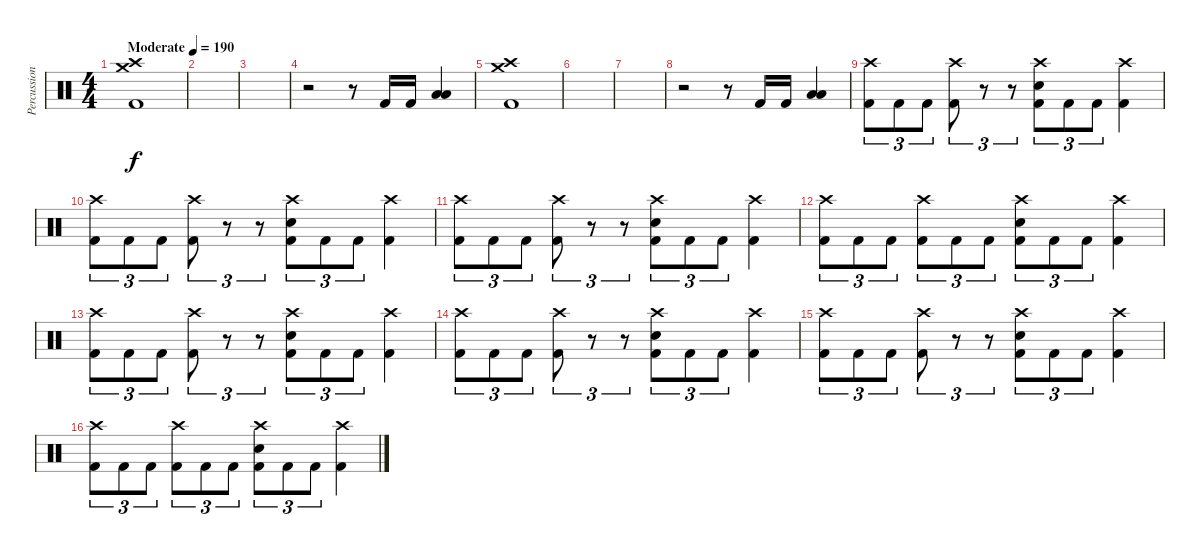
\track ("Percussion" "Percussion") {instrument percussion}
\staff {score}
\articulation defaults
\ts (4 4)
\tempo (190 "Moderate")
\clef neutral
\ks c
("Crash medium (hit)" "Crash high (hit)" "Kick (hit) 2").1{dy f} |
|
|
r.2 r.8 "Kick (hit) 2".16 "Kick (hit) 2".16 ("Low Tom (hit)" "Low Floor Tom (hit)").4 |
("Crash medium (hit)" "Crash high (hit)" "Kick (hit) 2").1 |
|
|
r.2 r.8 "Kick (hit) 2".16 "Kick (hit) 2".16 ("Low Tom (hit)" "Low Floor Tom (hit)").4 |
("Crash high (hit)" "Kick (hit) 2").8{tu (3 2)} "Kick (hit) 2".8{tu (3 2)} "Kick (hit) 2".8{tu (3 2)} ("Crash high (hit)" "Kick (hit) 2").8{tu (3 2)} r.8{tu (3 2)} r.8{tu (3 2)} ("Crash high (hit)" "Electric Snare (hit)" "Kick (hit) 2").8{tu (3 2)} "Kick (hit) 2".8{tu (3 2)} "Kick (hit) 2".8{tu (3 2)} ("Crash high (hit)" "Kick (hit) 2").4 |
("Crash high (hit)" "Kick (hit) 2").8{tu (3 2)} "Kick (hit) 2".8{tu (3 2)} "Kick (hit) 2".8{tu (3 2)} ("Crash high (hit)" "Kick (hit) 2").8{tu (3 2)} r.8{tu (3 2)} r.8{tu (3 2)} ("Crash high (hit)" "Electric Snare (hit)" "Kick (hit) 2").8{tu (3 2)} "Kick (hit) 2".8{tu (3 2)} "Kick (hit) 2".8{tu (3 2)} ("Crash high (hit)" "Kick (hit) 2").4 |
("Crash high (hit)" "Kick (hit) 2").8{tu (3 2)} "Kick (hit) 2".8{tu (3 2)} "Kick (hit) 2".8{tu (3 2)} ("Crash high (hit)" "Kick (hit) 2").8{tu (3 2)} r.8{tu (3 2)} r.8{tu (3 2)} ("Crash high (hit)" "Electric Snare (hit)" "Kick (hit) 2").8{tu (3 2)} "Kick (hit) 2".8{tu (3 2)} "Kick (hit) 2".8{tu (3 2)} ("Crash high (hit)" "Kick (hit) 2").4 |
("Crash high (hit)" "Kick (hit) 2").8{tu (3 2)} "Kick (hit) 2".8{tu (3 2)} "Kick (hit) 2".8{tu (3 2)} ("Crash high (hit)" "Kick (hit) 2").8{tu (3 2)} "Kick (hit) 2".8{tu (3 2)} "Kick (hit) 2".8{tu (3 2)} ("Crash high (hit)" "Electric Snare (hit)" "Kick (hit) 2").8{tu (3 2)} "Kick (hit) 2".8{tu (3 2)} "Kick (hit) 2".8{tu (3 2)} ("Crash high (hit)" "Kick (hit) 2").4 |
("Crash high (hit)" "Kick (hit) 2").8{tu (3 2)} "Kick (hit) 2".8{tu (3 2)} "Kick (hit) 2".8{tu (3 2)} ("Crash high (hit)" "Kick (hit) 2").8{tu (3 2)} r.8{tu (3 2)} r.8{tu (3 2)} ("Crash high (hit)" "Electric Snare (hit)" "Kick (hit) 2").8{tu (3 2)} "Kick (hit) 2".8{tu (3 2)} "Kick (hit) 2".8{tu (3 2)} ("Crash high (hit)" "Kick (hit) 2").4 |
("Crash high (hit)" "Kick (hit) 2").8{tu (3 2)} "Kick (hit) 2".8{tu (3 2)} "Kick (hit) 2".8{tu (3 2)} ("Crash high (hit)" "Kick (hit) 2").8{tu (3 2)} r.8{tu (3 2)} r.8{tu (3 2)} ("Crash high (hit)" "Electric Snare (hit)" "Kick (hit) 2").8{tu (3 2)} "Kick (hit) 2".8{tu (3 2)} "Kick (hit) 2".8{tu (3 2)} ("Crash high (hit)" "Kick (hit) 2").4 |
("Crash high (hit)" "Kick (hit) 2").8{tu (3 2)} "Kick (hit) 2".8{tu (3 2)} "Kick (hit) 2".8{tu (3 2)} ("Crash high (hit)" "Kick (hit) 2").8{tu (3 2)} r.8{tu (3 2)} r.8{tu (3 2)} ("Crash high (hit)" "Electric Snare (hit)" "Kick (hit) 2").8{tu (3 2)} "Kick (hit) 2".8{tu (3 2)} "Kick (hit) 2".8{tu (3 2)} ("Crash high (hit)" "Kick (hit) 2").4 |
("Crash high (hit)" "Kick (hit) 2").8{tu (3 2)} "Kick (hit) 2".8{tu (3 2)} "Kick (hit) 2".8{tu (3 2)} ("Crash high (hit)" "Kick (hit) 2").8{tu (3 2)} "Kick (hit) 2".8{tu (3 2)} "Kick (hit) 2".8{tu (3 2)} ("Crash high (hit)" "Electric Snare (hit)" "Kick (hit) 2").8{tu (3 2)} "Kick (hit) 2".8{tu (3 2)} "Kick (hit) 2".8{tu (3 2)} ("Crash high (hit)" "Kick (hit) 2").4
